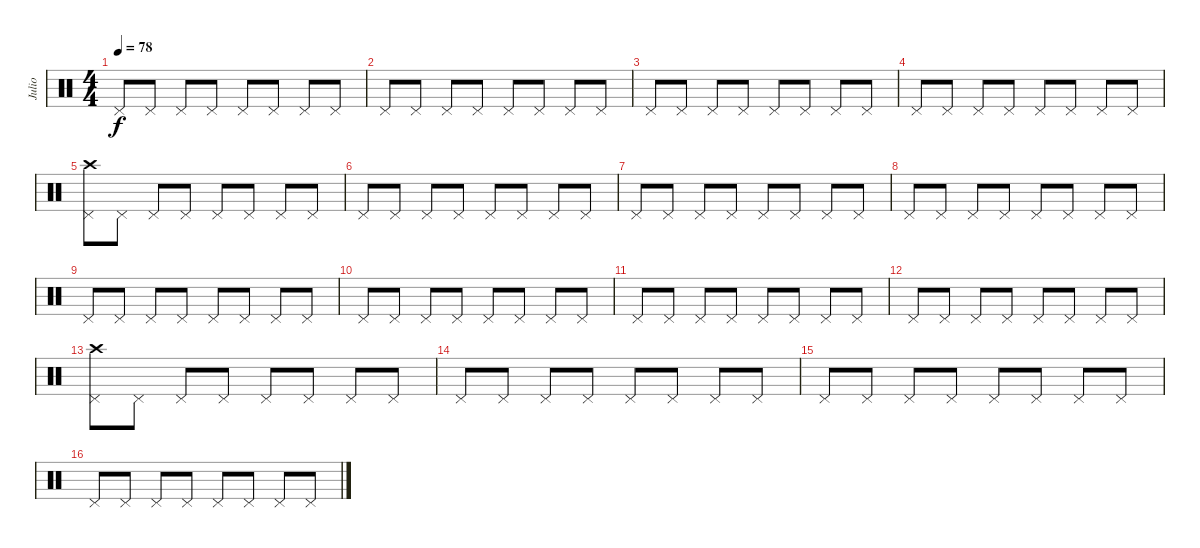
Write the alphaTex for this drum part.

\track ("Julio" "Julio") {instrument percussion}
\staff {score}
\articulation defaults
\ts (4 4)
\tempo 78
\clef neutral
\ks c "Pedal Hi-Hat (hit)".8{dy f} "Pedal Hi-Hat (hit)".8 "Pedal Hi-Hat (hit)".8 "Pedal Hi-Hat (hit)".8 "Pedal Hi-Hat (hit)".8 "Pedal Hi-Hat (hit)".8 "Pedal Hi-Hat (hit)".8 "Pedal Hi-Hat (hit)".8
|
"Pedal Hi-Hat (hit)".8 "Pedal Hi-Hat (hit)".8 "Pedal Hi-Hat (hit)".8 "Pedal Hi-Hat (hit)".8 "Pedal Hi-Hat (hit)".8 "Pedal Hi-Hat (hit)".8 "Pedal Hi-Hat (hit)".8 "Pedal Hi-Hat (hit)".8 |
"Pedal Hi-Hat (hit)".8 "Pedal Hi-Hat (hit)".8 "Pedal Hi-Hat (hit)".8 "Pedal Hi-Hat (hit)".8 "Pedal Hi-Hat (hit)".8 "Pedal Hi-Hat (hit)".8 "Pedal Hi-Hat (hit)".8 "Pedal Hi-Hat (hit)".8 |
"Pedal Hi-Hat (hit)".8 "Pedal Hi-Hat (hit)".8 "Pedal Hi-Hat (hit)".8 "Pedal Hi-Hat (hit)".8 "Pedal Hi-Hat (hit)".8 "Pedal Hi-Hat (hit)".8 "Pedal Hi-Hat (hit)".8 "Pedal Hi-Hat (hit)".8 |
("Crash high (hit)" "Pedal Hi-Hat (hit)").8 "Pedal Hi-Hat (hit)".8 "Pedal Hi-Hat (hit)".8 "Pedal Hi-Hat (hit)".8 "Pedal Hi-Hat (hit)".8 "Pedal Hi-Hat (hit)".8 "Pedal Hi-Hat (hit)".8 "Pedal Hi-Hat (hit)".8 |
"Pedal Hi-Hat (hit)".8 "Pedal Hi-Hat (hit)".8 "Pedal Hi-Hat (hit)".8 "Pedal Hi-Hat (hit)".8 "Pedal Hi-Hat (hit)".8 "Pedal Hi-Hat (hit)".8 "Pedal Hi-Hat (hit)".8 "Pedal Hi-Hat (hit)".8 |
"Pedal Hi-Hat (hit)".8 "Pedal Hi-Hat (hit)".8 "Pedal Hi-Hat (hit)".8 "Pedal Hi-Hat (hit)".8 "Pedal Hi-Hat (hit)".8 "Pedal Hi-Hat (hit)".8 "Pedal Hi-Hat (hit)".8 "Pedal Hi-Hat (hit)".8 |
"Pedal Hi-Hat (hit)".8 "Pedal Hi-Hat (hit)".8 "Pedal Hi-Hat (hit)".8 "Pedal Hi-Hat (hit)".8 "Pedal Hi-Hat (hit)".8 "Pedal Hi-Hat (hit)".8 "Pedal Hi-Hat (hit)".8 "Pedal Hi-Hat (hit)".8 |
"Pedal Hi-Hat (hit)".8 "Pedal Hi-Hat (hit)".8 "Pedal Hi-Hat (hit)".8 "Pedal Hi-Hat (hit)".8 "Pedal Hi-Hat (hit)".8 "Pedal Hi-Hat (hit)".8 "Pedal Hi-Hat (hit)".8 "Pedal Hi-Hat (hit)".8 |
"Pedal Hi-Hat (hit)".8 "Pedal Hi-Hat (hit)".8 "Pedal Hi-Hat (hit)".8 "Pedal Hi-Hat (hit)".8 "Pedal Hi-Hat (hit)".8 "Pedal Hi-Hat (hit)".8 "Pedal Hi-Hat (hit)".8 "Pedal Hi-Hat (hit)".8 |
"Pedal Hi-Hat (hit)".8 "Pedal Hi-Hat (hit)".8 "Pedal Hi-Hat (hit)".8 "Pedal Hi-Hat (hit)".8 "Pedal Hi-Hat (hit)".8 "Pedal Hi-Hat (hit)".8 "Pedal Hi-Hat (hit)".8 "Pedal Hi-Hat (hit)".8 |
"Pedal Hi-Hat (hit)".8 "Pedal Hi-Hat (hit)".8 "Pedal Hi-Hat (hit)".8 "Pedal Hi-Hat (hit)".8 "Pedal Hi-Hat (hit)".8 "Pedal Hi-Hat (hit)".8 "Pedal Hi-Hat (hit)".8 "Pedal Hi-Hat (hit)".8 |
("Crash high (hit)" "Pedal Hi-Hat (hit)").8 "Pedal Hi-Hat (hit)".8 "Pedal Hi-Hat (hit)".8 "Pedal Hi-Hat (hit)".8 "Pedal Hi-Hat (hit)".8 "Pedal Hi-Hat (hit)".8 "Pedal Hi-Hat (hit)".8 "Pedal Hi-Hat (hit)".8 |
"Pedal Hi-Hat (hit)".8 "Pedal Hi-Hat (hit)".8 "Pedal Hi-Hat (hit)".8 "Pedal Hi-Hat (hit)".8 "Pedal Hi-Hat (hit)".8 "Pedal Hi-Hat (hit)".8 "Pedal Hi-Hat (hit)".8 "Pedal Hi-Hat (hit)".8 |
"Pedal Hi-Hat (hit)".8 "Pedal Hi-Hat (hit)".8 "Pedal Hi-Hat (hit)".8 "Pedal Hi-Hat (hit)".8 "Pedal Hi-Hat (hit)".8 "Pedal Hi-Hat (hit)".8 "Pedal Hi-Hat (hit)".8 "Pedal Hi-Hat (hit)".8 |
"Pedal Hi-Hat (hit)".8 "Pedal Hi-Hat (hit)".8 "Pedal Hi-Hat (hit)".8 "Pedal Hi-Hat (hit)".8 "Pedal Hi-Hat (hit)".8 "Pedal Hi-Hat (hit)".8 "Pedal Hi-Hat (hit)".8 "Pedal Hi-Hat (hit)".8
